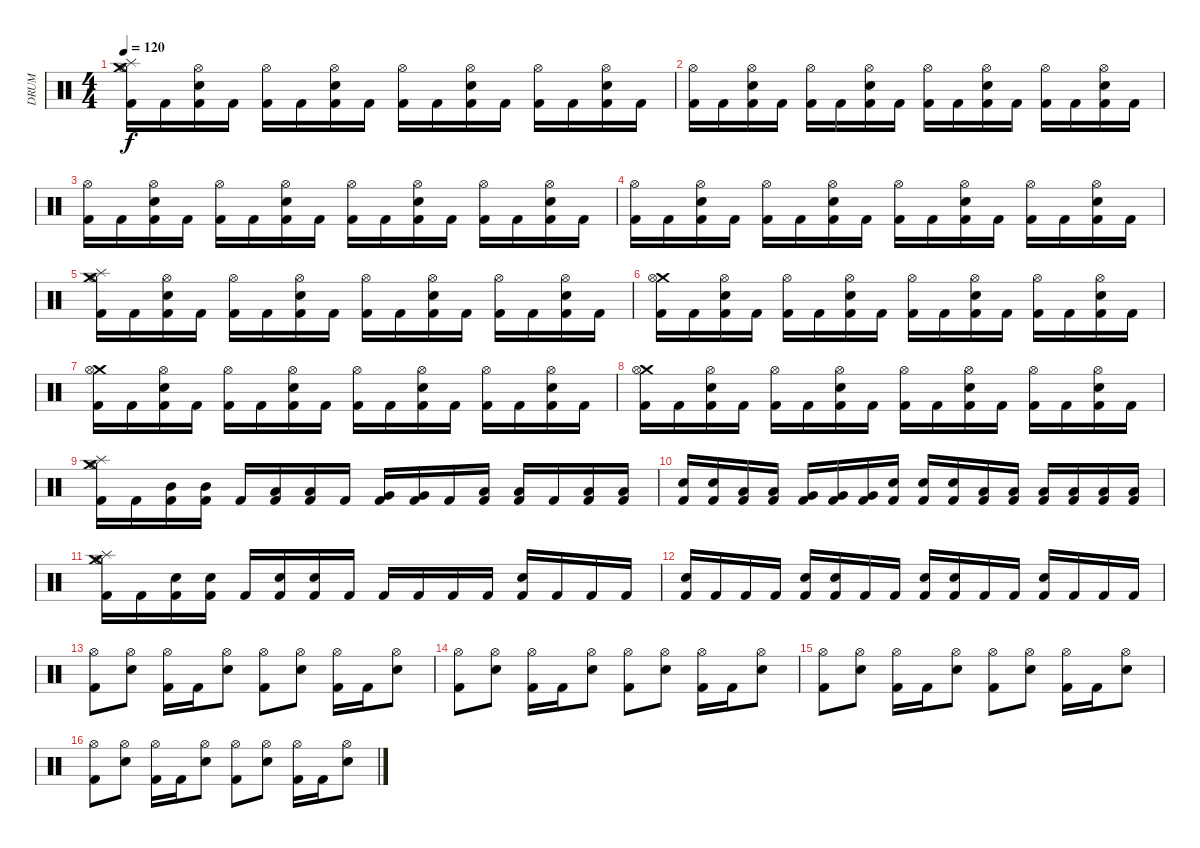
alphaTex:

\track (" DRUM" " DRUM") {instrument percussion}
\staff {score}
\articulation defaults
\ts (4 4)
\tempo 120
\clef neutral
\ks c
("Hi-Hat (open)" "Splash (hit)" "Crash medium (hit)" "Kick (hit) 2").16{dy f} "Kick (hit) 2".16 ("Hi-Hat (open)" "Electric Snare (hit)" "Kick (hit) 2").16 "Kick (hit) 2".16 ("Hi-Hat (open)" "Kick (hit) 2").16 "Kick (hit) 2".16 ("Hi-Hat (open)" "Electric Snare (hit)" "Kick (hit) 2").16 "Kick (hit) 2".16 ("Hi-Hat (open)" "Kick (hit) 2").16 "Kick (hit) 2".16 ("Hi-Hat (open)" "Electric Snare (hit)" "Kick (hit) 2").16 "Kick (hit) 2".16 ("Hi-Hat (open)" "Kick (hit) 2").16 "Kick (hit) 2".16 ("Hi-Hat (open)" "Electric Snare (hit)" "Kick (hit) 2").16 "Kick (hit) 2".16 |
("Hi-Hat (open)" "Kick (hit) 2").16 "Kick (hit) 2".16 ("Hi-Hat (open)" "Electric Snare (hit)" "Kick (hit) 2").16 "Kick (hit) 2".16 ("Hi-Hat (open)" "Kick (hit) 2").16 "Kick (hit) 2".16 ("Hi-Hat (open)" "Electric Snare (hit)" "Kick (hit) 2").16 "Kick (hit) 2".16 ("Hi-Hat (open)" "Kick (hit) 2").16 "Kick (hit) 2".16 ("Hi-Hat (open)" "Electric Snare (hit)" "Kick (hit) 2").16 "Kick (hit) 2".16 ("Hi-Hat (open)" "Kick (hit) 2").16 "Kick (hit) 2".16 ("Hi-Hat (open)" "Electric Snare (hit)" "Kick (hit) 2").16 "Kick (hit) 2".16 |
("Hi-Hat (open)" "Kick (hit) 2").16 "Kick (hit) 2".16 ("Hi-Hat (open)" "Electric Snare (hit)" "Kick (hit) 2").16 "Kick (hit) 2".16 ("Hi-Hat (open)" "Kick (hit) 2").16 "Kick (hit) 2".16 ("Hi-Hat (open)" "Electric Snare (hit)" "Kick (hit) 2").16 "Kick (hit) 2".16 ("Hi-Hat (open)" "Kick (hit) 2").16 "Kick (hit) 2".16 ("Hi-Hat (open)" "Electric Snare (hit)" "Kick (hit) 2").16 "Kick (hit) 2".16 ("Hi-Hat (open)" "Kick (hit) 2").16 "Kick (hit) 2".16 ("Hi-Hat (open)" "Electric Snare (hit)" "Kick (hit) 2").16 "Kick (hit) 2".16 |
("Hi-Hat (open)" "Kick (hit) 2").16 "Kick (hit) 2".16 ("Hi-Hat (open)" "Electric Snare (hit)" "Kick (hit) 2").16 "Kick (hit) 2".16 ("Hi-Hat (open)" "Kick (hit) 2").16 "Kick (hit) 2".16 ("Hi-Hat (open)" "Electric Snare (hit)" "Kick (hit) 2").16 "Kick (hit) 2".16 ("Hi-Hat (open)" "Kick (hit) 2").16 "Kick (hit) 2".16 ("Hi-Hat (open)" "Electric Snare (hit)" "Kick (hit) 2").16 "Kick (hit) 2".16 ("Hi-Hat (open)" "Kick (hit) 2").16 "Kick (hit) 2".16 ("Hi-Hat (open)" "Electric Snare (hit)" "Kick (hit) 2").16 "Kick (hit) 2".16 |
("Hi-Hat (open)" "Splash (hit)" "Crash medium (hit)" "Kick (hit) 2").16 "Kick (hit) 2".16 ("Hi-Hat (open)" "Electric Snare (hit)" "Kick (hit) 2").16 "Kick (hit) 2".16 ("Hi-Hat (open)" "Kick (hit) 2").16 "Kick (hit) 2".16 ("Hi-Hat (open)" "Electric Snare (hit)" "Kick (hit) 2").16 "Kick (hit) 2".16 ("Hi-Hat (open)" "Kick (hit) 2").16 "Kick (hit) 2".16 ("Hi-Hat (open)" "Electric Snare (hit)" "Kick (hit) 2").16 "Kick (hit) 2".16 ("Hi-Hat (open)" "Kick (hit) 2").16 "Kick (hit) 2".16 ("Hi-Hat (open)" "Electric Snare (hit)" "Kick (hit) 2").16 "Kick (hit) 2".16 |
("Crash medium (hit)" "Hi-Hat (open)" "Kick (hit) 2").16 "Kick (hit) 2".16 ("Hi-Hat (open)" "Electric Snare (hit)" "Kick (hit) 2").16 "Kick (hit) 2".16 ("Hi-Hat (open)" "Kick (hit) 2").16 "Kick (hit) 2".16 ("Hi-Hat (open)" "Electric Snare (hit)" "Kick (hit) 2").16 "Kick (hit) 2".16 ("Hi-Hat (open)" "Kick (hit) 2").16 "Kick (hit) 2".16 ("Hi-Hat (open)" "Electric Snare (hit)" "Kick (hit) 2").16 "Kick (hit) 2".16 ("Hi-Hat (open)" "Kick (hit) 2").16 "Kick (hit) 2".16 ("Hi-Hat (open)" "Electric Snare (hit)" "Kick (hit) 2").16 "Kick (hit) 2".16 |
("Crash medium (hit)" "Hi-Hat (open)" "Kick (hit) 2").16 "Kick (hit) 2".16 ("Hi-Hat (open)" "Electric Snare (hit)" "Kick (hit) 2").16 "Kick (hit) 2".16 ("Hi-Hat (open)" "Kick (hit) 2").16 "Kick (hit) 2".16 ("Hi-Hat (open)" "Electric Snare (hit)" "Kick (hit) 2").16 "Kick (hit) 2".16 ("Hi-Hat (open)" "Kick (hit) 2").16 "Kick (hit) 2".16 ("Hi-Hat (open)" "Electric Snare (hit)" "Kick (hit) 2").16 "Kick (hit) 2".16 ("Hi-Hat (open)" "Kick (hit) 2").16 "Kick (hit) 2".16 ("Hi-Hat (open)" "Electric Snare (hit)" "Kick (hit) 2").16 "Kick (hit) 2".16 |
("Crash medium (hit)" "Hi-Hat (open)" "Kick (hit) 2").16 "Kick (hit) 2".16 ("Hi-Hat (open)" "Electric Snare (hit)" "Kick (hit) 2").16 "Kick (hit) 2".16 ("Hi-Hat (open)" "Kick (hit) 2").16 "Kick (hit) 2".16 ("Hi-Hat (open)" "Electric Snare (hit)" "Kick (hit) 2").16 "Kick (hit) 2".16 ("Hi-Hat (open)" "Kick (hit) 2").16 "Kick (hit) 2".16 ("Hi-Hat (open)" "Electric Snare (hit)" "Kick (hit) 2").16 "Kick (hit) 2".16 ("Hi-Hat (open)" "Kick (hit) 2").16 "Kick (hit) 2".16 ("Hi-Hat (open)" "Electric Snare (hit)" "Kick (hit) 2").16 "Kick (hit) 2".16 |
("Splash (hit)" "Hi-Hat (open)" "Crash medium (hit)" "Kick (hit) 2").16 "Kick (hit) 2".16 ("Mid Tom (hit)" "Kick (hit) 2").16 ("Mid Tom (hit)" "Kick (hit) 2").16 "Kick (hit) 2".16 ("Low Tom (hit)" "Kick (hit) 2").16 ("Low Tom (hit)" "Kick (hit) 2").16 "Kick (hit) 2".16 ("Very Low Tom (hit)" "Kick (hit) 2").16 ("Very Low Tom (hit)" "Kick (hit) 2").16 "Kick (hit) 2".16 ("Low Floor Tom (hit)" "Kick (hit) 2").16 ("Low Floor Tom (hit)" "Kick (hit) 2").16 "Kick (hit) 2".16 ("Low Floor Tom (hit)" "Kick (hit) 2").16 ("Low Floor Tom (hit)" "Kick (hit) 2").16 |
("Electric Snare (hit)" "Kick (hit) 2").16 ("Electric Snare (hit)" "Kick (hit) 2").16 ("Low Tom (hit)" "Kick (hit) 2").16 ("Low Tom (hit)" "Kick (hit) 2").16 ("Very Low Tom (hit)" "Kick (hit) 2").16 ("Very Low Tom (hit)" "Kick (hit) 2").16 ("Very Low Tom (hit)" "Kick (hit) 2").16 ("Electric Snare (hit)" "Kick (hit) 2").16 ("Electric Snare (hit)" "Kick (hit) 2").16 ("Electric Snare (hit)" "Kick (hit) 2").16 ("Low Floor Tom (hit)" "Kick (hit) 2").16 ("Low Floor Tom (hit)" "Kick (hit) 2").16 ("Low Floor Tom (hit)" "Kick (hit) 2").16 ("Low Floor Tom (hit)" "Kick (hit) 2").16 ("Low Floor Tom (hit)" "Kick (hit) 2").16 ("Low Floor Tom (hit)" "Kick (hit) 2").16 |
("Splash (hit)" "Hi-Hat (open)" "Crash medium (hit)" "Kick (hit) 2").16 "Kick (hit) 2".16 ("Electric Snare (hit)" "Kick (hit) 2").16 ("Electric Snare (hit)" "Kick (hit) 2").16 "Kick (hit) 2".16 ("Electric Snare (hit)" "Kick (hit) 2").16 ("Electric Snare (hit)" "Kick (hit) 2").16 "Kick (hit) 2".16 "Kick (hit) 2".16 "Kick (hit) 2".16 "Kick (hit) 2".16 "Kick (hit) 2".16 ("Electric Snare (hit)" "Kick (hit) 2").16 "Kick (hit) 2".16 "Kick (hit) 2".16 "Kick (hit) 2".16 |
("Electric Snare (hit)" "Kick (hit) 2").16 "Kick (hit) 2".16 "Kick (hit) 2".16 "Kick (hit) 2".16 ("Electric Snare (hit)" "Kick (hit) 2").16 ("Electric Snare (hit)" "Kick (hit) 2").16 "Kick (hit) 2".16 "Kick (hit) 2".16 ("Electric Snare (hit)" "Kick (hit) 2").16 ("Electric Snare (hit)" "Kick (hit) 2").16 "Kick (hit) 2".16 "Kick (hit) 2".16 ("Electric Snare (hit)" "Kick (hit) 2").16 "Kick (hit) 2".16 "Kick (hit) 2".16 "Kick (hit) 2".16 |
("Hi-Hat (open)" "Kick (hit) 2").8 ("Hi-Hat (open)" "Electric Snare (hit)").8 ("Hi-Hat (open)" "Kick (hit) 2").16 "Kick (hit) 2".16 ("Hi-Hat (open)" "Electric Snare (hit)").8 ("Hi-Hat (open)" "Kick (hit) 2").8 ("Hi-Hat (open)" "Electric Snare (hit)").8 ("Hi-Hat (open)" "Kick (hit) 2").16 "Kick (hit) 2".16 ("Hi-Hat (open)" "Electric Snare (hit)").8 |
("Hi-Hat (open)" "Kick (hit) 2").8 ("Hi-Hat (open)" "Electric Snare (hit)").8 ("Hi-Hat (open)" "Kick (hit) 2").16 "Kick (hit) 2".16 ("Hi-Hat (open)" "Electric Snare (hit)").8 ("Hi-Hat (open)" "Kick (hit) 2").8 ("Hi-Hat (open)" "Electric Snare (hit)").8 ("Hi-Hat (open)" "Kick (hit) 2").16 "Kick (hit) 2".16 ("Hi-Hat (open)" "Electric Snare (hit)").8 |
("Hi-Hat (open)" "Kick (hit) 2").8 ("Hi-Hat (open)" "Electric Snare (hit)").8 ("Hi-Hat (open)" "Kick (hit) 2").16 "Kick (hit) 2".16 ("Hi-Hat (open)" "Electric Snare (hit)").8 ("Hi-Hat (open)" "Kick (hit) 2").8 ("Hi-Hat (open)" "Electric Snare (hit)").8 ("Hi-Hat (open)" "Kick (hit) 2").16 "Kick (hit) 2".16 ("Hi-Hat (open)" "Electric Snare (hit)").8 |
("Hi-Hat (open)" "Kick (hit) 2").8 ("Hi-Hat (open)" "Electric Snare (hit)").8 ("Hi-Hat (open)" "Kick (hit) 2").16 "Kick (hit) 2".16 ("Hi-Hat (open)" "Electric Snare (hit)").8 ("Hi-Hat (open)" "Kick (hit) 2").8 ("Hi-Hat (open)" "Electric Snare (hit)").8 ("Hi-Hat (open)" "Kick (hit) 2").16 "Kick (hit) 2".16 ("Hi-Hat (open)" "Electric Snare (hit)").8
